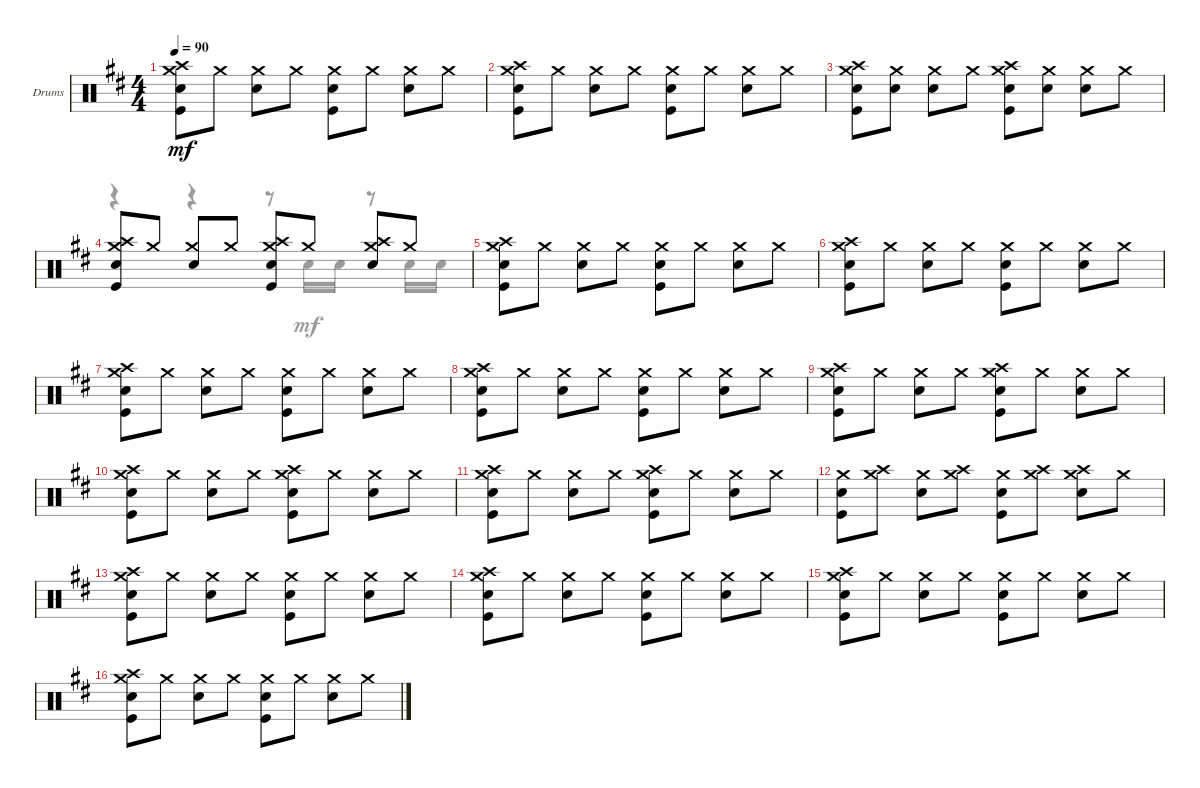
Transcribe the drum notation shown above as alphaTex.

\defaultSystemsLayout 4
\bracketExtendMode groupsimilarinstruments
\firstSystemTrackNameOrientation horizontal
\otherSystemsTrackNameOrientation horizontal
\track ("Drumkit" "Drums") {instrument percussion}
\staff {score}
\articulation defaults
\voice
\ts (4 4)
\tempo 90
\clef neutral
\ks bminor
("Kick (hit)" "Snare (hit) 2" "Crash medium (hit)" "Crash high (hit)").8{dy mf} "Crash medium (hit)".8 ("Snare (hit) 2" "Crash medium (hit)").8 "Crash medium (hit)".8 ("Kick (hit)" "Snare (hit) 2" "Crash medium (hit)").8 "Crash medium (hit)".8 ("Snare (hit) 2" "Crash medium (hit)").8 "Crash medium (hit)".8 |
("Kick (hit)" "Snare (hit) 2" "Crash medium (hit)" "Crash high (hit)").8 "Crash medium (hit)".8 ("Snare (hit) 2" "Crash medium (hit)").8 "Crash medium (hit)".8 ("Kick (hit)" "Snare (hit) 2" "Crash medium (hit)").8 "Crash medium (hit)".8 ("Snare (hit) 2" "Crash medium (hit)").8 "Crash medium (hit)".8 |
("Kick (hit)" "Snare (hit) 2" "Crash medium (hit)" "Crash high (hit)").8 ("Crash medium (hit)" "Snare (hit) 2").8 ("Snare (hit) 2" "Crash medium (hit)").8 "Crash medium (hit)".8 ("Kick (hit)" "Snare (hit) 2" "Crash medium (hit)" "Crash high (hit)").8 ("Crash medium (hit)" "Snare (hit) 2").8 ("Snare (hit) 2" "Crash medium (hit)").8 "Crash medium (hit)".8 |
("Kick (hit)" "Snare (hit) 2" "Crash medium (hit)" "Crash high (hit)").8 "Crash medium (hit)".8 ("Snare (hit) 2" "Crash medium (hit)").8 "Crash medium (hit)".8 ("Kick (hit)" "Snare (hit) 2" "Crash medium (hit)" "Crash high (hit)").8 "Crash medium (hit)".8 ("Snare (hit) 2" "Crash medium (hit)" "Crash high (hit)").8 "Crash medium (hit)".8 |
("Kick (hit)" "Snare (hit) 2" "Crash medium (hit)" "Crash high (hit)").8 "Crash medium (hit)".8 ("Snare (hit) 2" "Crash medium (hit)").8 "Crash medium (hit)".8 ("Kick (hit)" "Snare (hit) 2" "Crash medium (hit)").8 "Crash medium (hit)".8 ("Snare (hit) 2" "Crash medium (hit)").8 "Crash medium (hit)".8 |
("Kick (hit)" "Snare (hit) 2" "Crash medium (hit)" "Crash high (hit)").8 "Crash medium (hit)".8 ("Snare (hit) 2" "Crash medium (hit)").8 "Crash medium (hit)".8 ("Kick (hit)" "Snare (hit) 2" "Crash medium (hit)").8 "Crash medium (hit)".8 ("Snare (hit) 2" "Crash medium (hit)").8 "Crash medium (hit)".8 |
("Kick (hit)" "Snare (hit) 2" "Crash medium (hit)" "Crash high (hit)").8 "Crash medium (hit)".8 ("Snare (hit) 2" "Crash medium (hit)").8 "Crash medium (hit)".8 ("Kick (hit)" "Snare (hit) 2" "Crash medium (hit)").8 "Crash medium (hit)".8 ("Snare (hit) 2" "Crash medium (hit)").8 "Crash medium (hit)".8 |
("Kick (hit)" "Snare (hit) 2" "Crash medium (hit)" "Crash high (hit)").8 "Crash medium (hit)".8 ("Snare (hit) 2" "Crash medium (hit)").8 "Crash medium (hit)".8 ("Kick (hit)" "Snare (hit) 2" "Crash medium (hit)").8 "Crash medium (hit)".8 ("Snare (hit) 2" "Crash medium (hit)").8 "Crash medium (hit)".8 |
("Kick (hit)" "Snare (hit) 2" "Crash medium (hit)" "Crash high (hit)").8 "Crash medium (hit)".8 ("Snare (hit) 2" "Crash medium (hit)").8 "Crash medium (hit)".8 ("Kick (hit)" "Snare (hit) 2" "Crash medium (hit)" "Crash high (hit)").8 "Crash medium (hit)".8 ("Snare (hit) 2" "Crash medium (hit)").8 "Crash medium (hit)".8 |
("Kick (hit)" "Snare (hit) 2" "Crash medium (hit)" "Crash high (hit)").8 "Crash medium (hit)".8 ("Snare (hit) 2" "Crash medium (hit)").8 "Crash medium (hit)".8 ("Kick (hit)" "Snare (hit) 2" "Crash medium (hit)" "Crash high (hit)").8 "Crash medium (hit)".8 ("Snare (hit) 2" "Crash medium (hit)").8 "Crash medium (hit)".8 |
("Kick (hit)" "Snare (hit) 2" "Crash medium (hit)" "Crash high (hit)").8 "Crash medium (hit)".8 ("Snare (hit) 2" "Crash medium (hit)").8 "Crash medium (hit)".8 ("Kick (hit)" "Snare (hit) 2" "Crash medium (hit)" "Crash high (hit)").8 "Crash medium (hit)".8 ("Snare (hit) 2" "Crash medium (hit)").8 "Crash medium (hit)".8 |
("Kick (hit)" "Snare (hit) 2" "Crash medium (hit)").8 ("Crash medium (hit)" "Crash high (hit)").8 ("Snare (hit) 2" "Crash medium (hit)").8 ("Crash medium (hit)" "Crash high (hit)").8 ("Kick (hit)" "Snare (hit) 2" "Crash medium (hit)").8 ("Crash medium (hit)" "Crash high (hit)").8 ("Snare (hit) 2" "Crash medium (hit)" "Crash high (hit)").8 "Crash medium (hit)".8 |
("Kick (hit)" "Snare (hit) 2" "Crash medium (hit)" "Crash high (hit)").8 "Crash medium (hit)".8 ("Snare (hit) 2" "Crash medium (hit)").8 "Crash medium (hit)".8 ("Kick (hit)" "Snare (hit) 2" "Crash medium (hit)").8 "Crash medium (hit)".8 ("Snare (hit) 2" "Crash medium (hit)").8 "Crash medium (hit)".8 |
("Kick (hit)" "Snare (hit) 2" "Crash medium (hit)" "Crash high (hit)").8 "Crash medium (hit)".8 ("Snare (hit) 2" "Crash medium (hit)").8 "Crash medium (hit)".8 ("Kick (hit)" "Snare (hit) 2" "Crash medium (hit)").8 "Crash medium (hit)".8 ("Snare (hit) 2" "Crash medium (hit)").8 "Crash medium (hit)".8 |
("Kick (hit)" "Snare (hit) 2" "Crash medium (hit)" "Crash high (hit)").8 "Crash medium (hit)".8 ("Snare (hit) 2" "Crash medium (hit)").8 "Crash medium (hit)".8 ("Kick (hit)" "Snare (hit) 2" "Crash medium (hit)").8 "Crash medium (hit)".8 ("Snare (hit) 2" "Crash medium (hit)").8 "Crash medium (hit)".8 |
("Kick (hit)" "Snare (hit) 2" "Crash medium (hit)" "Crash high (hit)").8 "Crash medium (hit)".8 ("Snare (hit) 2" "Crash medium (hit)").8 "Crash medium (hit)".8 ("Kick (hit)" "Snare (hit) 2" "Crash medium (hit)").8 "Crash medium (hit)".8 ("Snare (hit) 2" "Crash medium (hit)").8 "Crash medium (hit)".8
\voice
\clef neutral
\ottava regular
\simile none
\ks bminor
|
|
|
r.4 r.4 r.8 "Snare (hit) 2".16 "Snare (hit) 2".16 r.8 "Snare (hit) 2".16 "Snare (hit) 2".16 |
|
|
|
|
|
|
|
|
|
|
|
